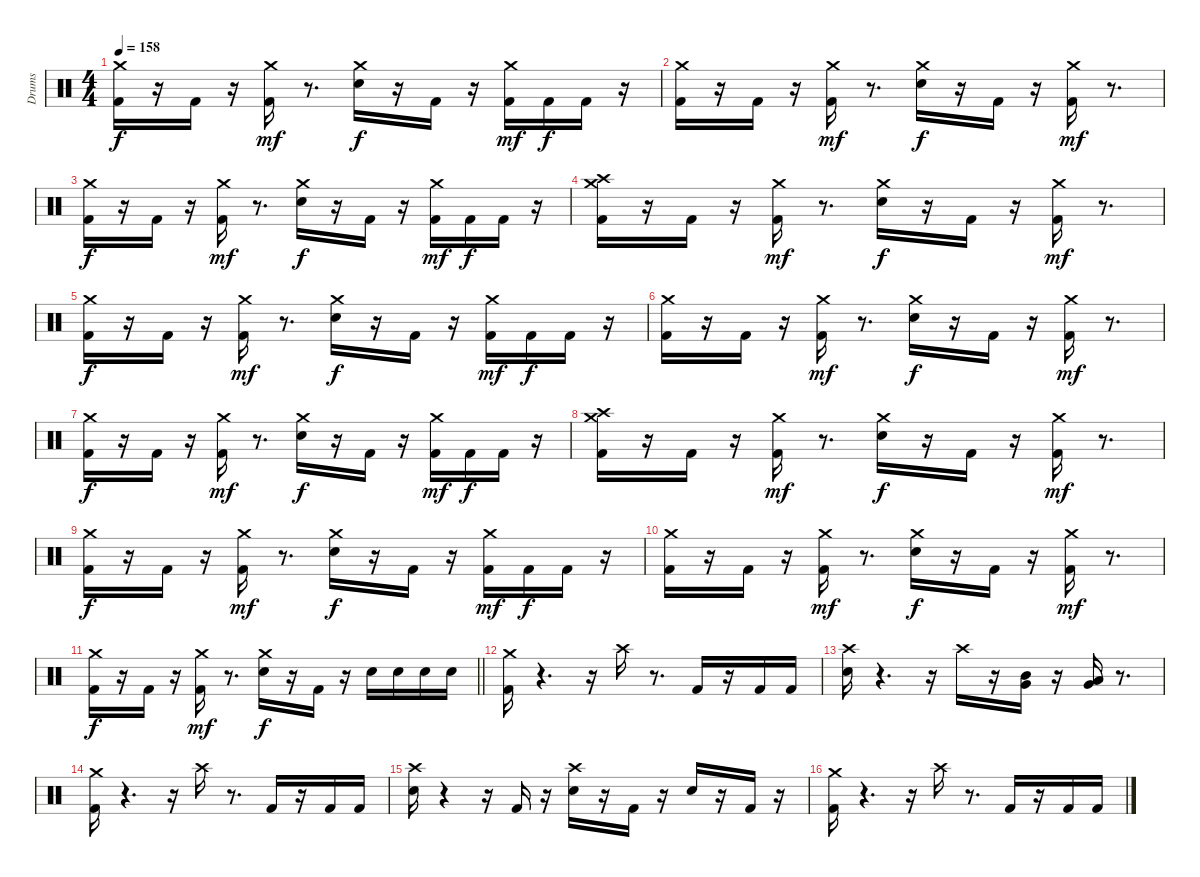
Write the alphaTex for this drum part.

\track ("Drums" "Drums") {instrument percussion}
\staff {score}
\articulation defaults
\ts (4 4)
\tempo 158
\clef neutral
\ks c
("Kick (hit) 2" "Crash medium (hit)").16{dy f} r.16 "Kick (hit) 2".16 r.16 ("Kick (hit) 2" "Crash medium (hit)").16{dy mf} r.8{d} ("Snare (hit) 2" "Crash medium (hit)").16{dy f} r.16 "Kick (hit) 2".16 r.16 ("Kick (hit) 2" "Crash medium (hit)").16{dy mf} "Kick (hit) 2".16{dy f} "Kick (hit) 2".16 r.16 |
("Kick (hit) 2" "Crash medium (hit)").16 r.16 "Kick (hit) 2".16 r.16 ("Kick (hit) 2" "Crash medium (hit)").16{dy mf} r.8{d} ("Snare (hit) 2" "Crash medium (hit)").16{dy f} r.16 "Kick (hit) 2".16 r.16 ("Kick (hit) 2" "Crash medium (hit)").16{dy mf} r.8{d} |
("Kick (hit) 2" "Crash medium (hit)").16{dy f} r.16 "Kick (hit) 2".16 r.16 ("Kick (hit) 2" "Crash medium (hit)").16{dy mf} r.8{d} ("Snare (hit) 2" "Crash medium (hit)").16{dy f} r.16 "Kick (hit) 2".16 r.16 ("Kick (hit) 2" "Crash medium (hit)").16{dy mf} "Kick (hit) 2".16{dy f} "Kick (hit) 2".16 r.16 |
("Kick (hit) 2" "Crash high (hit)" "Crash medium (hit)").16 r.16 "Kick (hit) 2".16 r.16 ("Kick (hit) 2" "Crash medium (hit)").16{dy mf} r.8{d} ("Snare (hit) 2" "Crash medium (hit)").16{dy f} r.16 "Kick (hit) 2".16 r.16 ("Kick (hit) 2" "Crash medium (hit)").16{dy mf} r.8{d} |
("Kick (hit) 2" "Crash medium (hit)").16{dy f} r.16 "Kick (hit) 2".16 r.16 ("Kick (hit) 2" "Crash medium (hit)").16{dy mf} r.8{d} ("Snare (hit) 2" "Crash medium (hit)").16{dy f} r.16 "Kick (hit) 2".16 r.16 ("Kick (hit) 2" "Crash medium (hit)").16{dy mf} "Kick (hit) 2".16{dy f} "Kick (hit) 2".16 r.16 |
("Kick (hit) 2" "Crash medium (hit)").16 r.16 "Kick (hit) 2".16 r.16 ("Kick (hit) 2" "Crash medium (hit)").16{dy mf} r.8{d} ("Snare (hit) 2" "Crash medium (hit)").16{dy f} r.16 "Kick (hit) 2".16 r.16 ("Kick (hit) 2" "Crash medium (hit)").16{dy mf} r.8{d} |
("Kick (hit) 2" "Crash medium (hit)").16{dy f} r.16 "Kick (hit) 2".16 r.16 ("Kick (hit) 2" "Crash medium (hit)").16{dy mf} r.8{d} ("Snare (hit) 2" "Crash medium (hit)").16{dy f} r.16 "Kick (hit) 2".16 r.16 ("Kick (hit) 2" "Crash medium (hit)").16{dy mf} "Kick (hit) 2".16{dy f} "Kick (hit) 2".16 r.16 |
("Kick (hit) 2" "Crash high (hit)" "Crash medium (hit)").16 r.16 "Kick (hit) 2".16 r.16 ("Kick (hit) 2" "Crash medium (hit)").16{dy mf} r.8{d} ("Snare (hit) 2" "Crash medium (hit)").16{dy f} r.16 "Kick (hit) 2".16 r.16 ("Kick (hit) 2" "Crash medium (hit)").16{dy mf} r.8{d} |
("Kick (hit) 2" "Crash medium (hit)").16{dy f} r.16 "Kick (hit) 2".16 r.16 ("Kick (hit) 2" "Crash medium (hit)").16{dy mf} r.8{d} ("Snare (hit) 2" "Crash medium (hit)").16{dy f} r.16 "Kick (hit) 2".16 r.16 ("Kick (hit) 2" "Crash medium (hit)").16{dy mf} "Kick (hit) 2".16{dy f} "Kick (hit) 2".16 r.16 |
("Kick (hit) 2" "Crash medium (hit)").16 r.16 "Kick (hit) 2".16 r.16 ("Kick (hit) 2" "Crash medium (hit)").16{dy mf} r.8{d} ("Snare (hit) 2" "Crash medium (hit)").16{dy f} r.16 "Kick (hit) 2".16 r.16 ("Kick (hit) 2" "Crash medium (hit)").16{dy mf} r.8{d} |
\barLineRight lightlight
("Kick (hit) 2" "Crash medium (hit)").16{dy f} r.16 "Kick (hit) 2".16 r.16 ("Kick (hit) 2" "Crash medium (hit)").16{dy mf} r.8{d} ("Snare (hit) 2" "Crash medium (hit)").16{dy f} r.16 "Kick (hit) 2".16 r.16 "Snare (hit) 2".16 "Snare (hit) 2".16 "Snare (hit) 2".16 "Snare (hit) 2".16 |
\section ("" " ")
("Kick (hit) 2" "Crash medium (hit)").16 r.4{d} r.16 "Crash high (hit)".16 r.8{d} "Kick (hit) 2".16 r.16 "Kick (hit) 2".16 "Kick (hit) 2".16 |
("Snare (hit) 2" "Crash high (hit)").16 r.4{d} r.16 "Crash high (hit)".16 r.16 ("Very Low Tom (hit)" "Mid Tom (hit)").16 r.16 ("Very Low Tom (hit)" "Low Tom (hit)").16 r.8{d} |
("Kick (hit) 2" "Crash medium (hit)").16 r.4{d} r.16 "Crash high (hit)".16 r.8{d} "Kick (hit) 2".16 r.16 "Kick (hit) 2".16 "Kick (hit) 2".16 |
("Snare (hit) 2" "Crash high (hit)").16 r.4 r.16 "Kick (hit) 2".16 r.16 ("Snare (hit) 2" "Crash high (hit)").16 r.16 "Kick (hit) 2".16 r.16 "Snare (hit) 2".16 r.16 "Kick (hit) 2".16 r.16 |
("Kick (hit) 2" "Crash medium (hit)").16 r.4{d} r.16 "Crash high (hit)".16 r.8{d} "Kick (hit) 2".16 r.16 "Kick (hit) 2".16 "Kick (hit) 2".16
